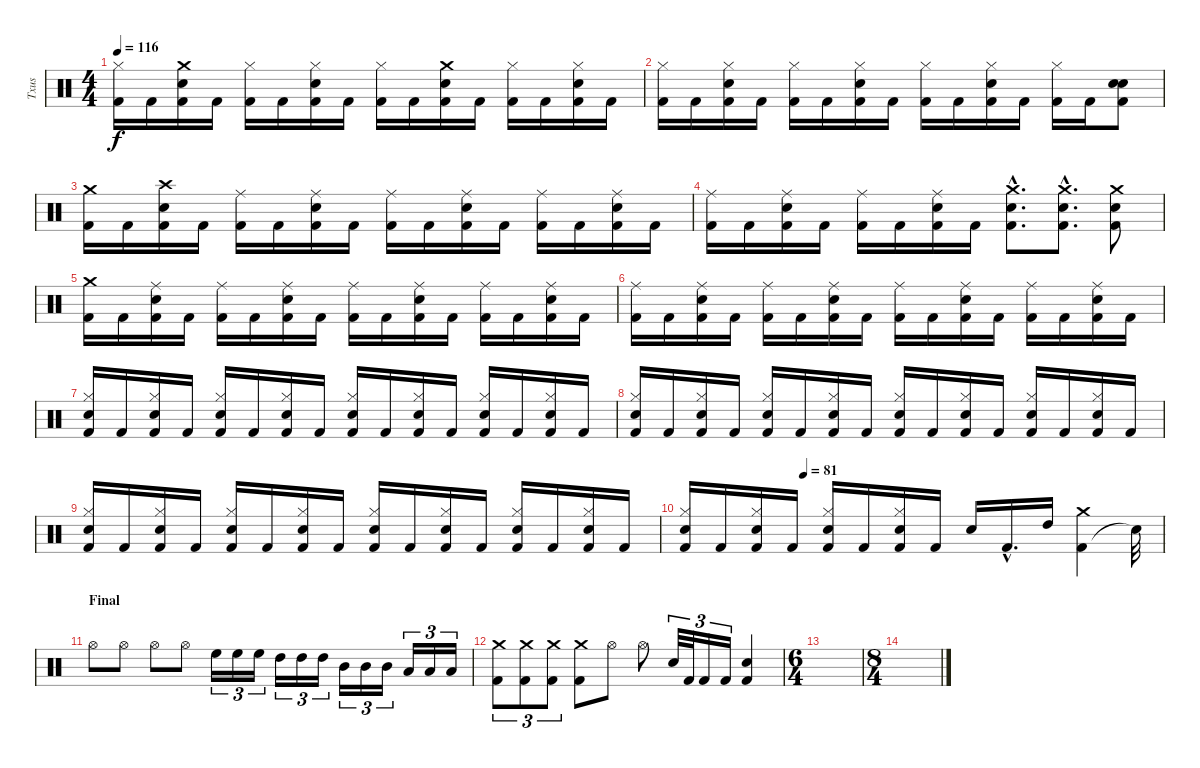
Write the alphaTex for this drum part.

\track ("Txus" "Txus") {instrument percussion}
\staff {score}
\articulation defaults
\ts (4 4)
\tempo 116
\clef neutral
\ks c
("Kick (hit) 2" "Hi-Hat (closed)").16{dy f} "Kick (hit) 2".16 ("Kick (hit) 2" "Electric Snare (hit)" "Crash medium (hit)").16 "Kick (hit) 2".16 ("Kick (hit) 2" "Hi-Hat (closed)").16 "Kick (hit) 2".16 ("Kick (hit) 2" "Electric Snare (hit)" "Hi-Hat (closed)").16 "Kick (hit) 2".16 ("Kick (hit) 2" "Hi-Hat (closed)").16 "Kick (hit) 2".16 ("Kick (hit) 2" "Electric Snare (hit)" "Crash medium (hit)").16 "Kick (hit) 2".16 ("Kick (hit) 2" "Hi-Hat (closed)").16 "Kick (hit) 2".16 ("Kick (hit) 2" "Electric Snare (hit)" "Hi-Hat (closed)").16 "Kick (hit) 2".16 |
("Kick (hit) 2" "Hi-Hat (closed)").16 "Kick (hit) 2".16 ("Kick (hit) 2" "Electric Snare (hit)" "Hi-Hat (closed)").16 "Kick (hit) 2".16 ("Kick (hit) 2" "Hi-Hat (closed)").16 "Kick (hit) 2".16 ("Kick (hit) 2" "Electric Snare (hit)" "Hi-Hat (closed)").16 "Kick (hit) 2".16 ("Kick (hit) 2" "Hi-Hat (closed)").16 "Kick (hit) 2".16 ("Kick (hit) 2" "Electric Snare (hit)" "Hi-Hat (closed)").16 "Kick (hit) 2".16 ("Kick (hit) 2" "Hi-Hat (closed)").16 "Kick (hit) 2".16 ("Kick (hit) 2" "Electric Snare (hit)" "Snare (hit) 2").8 |
("Kick (hit) 2" "Crash medium (hit)").16 "Kick (hit) 2".16 ("Kick (hit) 2" "Electric Snare (hit)" "Crash high (hit)").16 "Kick (hit) 2".16 ("Kick (hit) 2" "Ride (middle)").16 "Kick (hit) 2".16 ("Kick (hit) 2" "Electric Snare (hit)" "Ride (middle)").16 "Kick (hit) 2".16 ("Kick (hit) 2" "Ride (middle)").16 "Kick (hit) 2".16 ("Kick (hit) 2" "Electric Snare (hit)" "Ride (middle)").16 "Kick (hit) 2".16 ("Kick (hit) 2" "Ride (middle)").16 "Kick (hit) 2".16 ("Kick (hit) 2" "Electric Snare (hit)" "Ride (middle)").16 "Kick (hit) 2".16 |
("Kick (hit) 2" "Ride (middle)").16 "Kick (hit) 2".16 ("Kick (hit) 2" "Electric Snare (hit)" "Ride (middle)").16 "Kick (hit) 2".16 ("Kick (hit) 2" "Ride (middle)").16 "Kick (hit) 2".16 ("Kick (hit) 2" "Electric Snare (hit)" "Ride (middle)").16 "Kick (hit) 2".16 ("Kick (hit) 2"{hac} "Electric Snare (hit)"{hac} "Crash medium (hit)"{hac}).8{d} ("Kick (hit) 2"{hac} "Electric Snare (hit)"{hac} "Crash medium (hit)"{hac}).8{d} ("Kick (hit) 2" "Electric Snare (hit)" "Crash medium (hit)").8 |
("Kick (hit) 2" "Crash medium (hit)").16 "Kick (hit) 2".16 ("Kick (hit) 2" "Electric Snare (hit)" "Ride (middle)").16 "Kick (hit) 2".16 ("Kick (hit) 2" "Ride (middle)").16 "Kick (hit) 2".16 ("Kick (hit) 2" "Electric Snare (hit)" "Ride (middle)").16 "Kick (hit) 2".16 ("Kick (hit) 2" "Ride (middle)").16 "Kick (hit) 2".16 ("Kick (hit) 2" "Electric Snare (hit)" "Ride (middle)").16 "Kick (hit) 2".16 ("Kick (hit) 2" "Ride (middle)").16 "Kick (hit) 2".16 ("Kick (hit) 2" "Electric Snare (hit)" "Ride (middle)").16 "Kick (hit) 2".16 |
("Kick (hit) 2" "Ride (middle)").16 "Kick (hit) 2".16 ("Kick (hit) 2" "Electric Snare (hit)" "Ride (middle)").16 "Kick (hit) 2".16 ("Kick (hit) 2" "Ride (middle)").16 "Kick (hit) 2".16 ("Kick (hit) 2" "Electric Snare (hit)" "Ride (middle)").16 "Kick (hit) 2".16 ("Kick (hit) 2" "Ride (middle)").16 "Kick (hit) 2".16 ("Kick (hit) 2" "Electric Snare (hit)" "Ride (middle)").16 "Kick (hit) 2".16 ("Kick (hit) 2" "Ride (middle)").16 "Kick (hit) 2".16 ("Kick (hit) 2" "Electric Snare (hit)" "Ride (middle)").16 "Kick (hit) 2".16 |
("Kick (hit) 2" "Electric Snare (hit)" "Hi-Hat (closed)").16 "Kick (hit) 2".16 ("Kick (hit) 2" "Electric Snare (hit)" "Hi-Hat (closed)").16 "Kick (hit) 2".16 ("Kick (hit) 2" "Electric Snare (hit)" "Hi-Hat (closed)").16 "Kick (hit) 2".16 ("Kick (hit) 2" "Electric Snare (hit)" "Hi-Hat (closed)").16 "Kick (hit) 2".16 ("Kick (hit) 2" "Electric Snare (hit)" "Hi-Hat (closed)").16 "Kick (hit) 2".16 ("Kick (hit) 2" "Electric Snare (hit)" "Hi-Hat (closed)").16 "Kick (hit) 2".16 ("Kick (hit) 2" "Electric Snare (hit)" "Hi-Hat (closed)").16 "Kick (hit) 2".16 ("Kick (hit) 2" "Electric Snare (hit)" "Hi-Hat (closed)").16 "Kick (hit) 2".16 |
("Kick (hit) 2" "Electric Snare (hit)" "Hi-Hat (closed)").16 "Kick (hit) 2".16 ("Kick (hit) 2" "Electric Snare (hit)" "Hi-Hat (closed)").16 "Kick (hit) 2".16 ("Kick (hit) 2" "Electric Snare (hit)" "Hi-Hat (closed)").16 "Kick (hit) 2".16 ("Kick (hit) 2" "Electric Snare (hit)" "Hi-Hat (closed)").16 "Kick (hit) 2".16 ("Kick (hit) 2" "Electric Snare (hit)" "Hi-Hat (closed)").16 "Kick (hit) 2".16 ("Kick (hit) 2" "Electric Snare (hit)" "Hi-Hat (closed)").16 "Kick (hit) 2".16 ("Kick (hit) 2" "Electric Snare (hit)" "Hi-Hat (closed)").16 "Kick (hit) 2".16 ("Kick (hit) 2" "Electric Snare (hit)" "Hi-Hat (closed)").16 "Kick (hit) 2".16 |
("Kick (hit) 2" "Electric Snare (hit)" "Hi-Hat (closed)").16 "Kick (hit) 2".16 ("Kick (hit) 2" "Electric Snare (hit)" "Hi-Hat (closed)").16 "Kick (hit) 2".16 ("Kick (hit) 2" "Electric Snare (hit)" "Hi-Hat (closed)").16 "Kick (hit) 2".16 ("Kick (hit) 2" "Electric Snare (hit)" "Hi-Hat (closed)").16 "Kick (hit) 2".16 ("Kick (hit) 2" "Electric Snare (hit)" "Hi-Hat (closed)").16 "Kick (hit) 2".16 ("Kick (hit) 2" "Electric Snare (hit)" "Hi-Hat (closed)").16 "Kick (hit) 2".16 ("Kick (hit) 2" "Electric Snare (hit)" "Hi-Hat (closed)").16 "Kick (hit) 2".16 ("Kick (hit) 2" "Electric Snare (hit)" "Hi-Hat (closed)").16 "Kick (hit) 2".16 |
\tempo (81 0.25)
("Kick (hit) 2" "Electric Snare (hit)" "Hi-Hat (closed)").16 "Kick (hit) 2".16 ("Kick (hit) 2" "Electric Snare (hit)" "Hi-Hat (closed)").16 "Kick (hit) 2".16 ("Kick (hit) 2" "Electric Snare (hit)" "Hi-Hat (closed)").16 "Kick (hit) 2".16 ("Kick (hit) 2" "Electric Snare (hit)" "Hi-Hat (closed)").16 "Kick (hit) 2".16 "Electric Snare (hit)".16 "Kick (hit) 2"{hac}.16{d} "High Tom (hit)".16 ("Kick (hit) 2" "Crash medium (hit)").4 "Snare (hit)"{t}.32 |
\section ("" "Final")
"Hi-Hat (open)".8 "Hi-Hat (open)".8 "Hi-Hat (open)".8 "Hi-Hat (open)".8 "High Floor Tom (hit)".16{tu (3 2)} "High Floor Tom (hit)".16{tu (3 2)} "High Floor Tom (hit)".16{tu (3 2)} "High Tom (hit)".16{tu (3 2)} "High Tom (hit)".16{tu (3 2)} "High Tom (hit)".16{tu (3 2)} "Mid Tom (hit)".16{tu (3 2)} "Mid Tom (hit)".16{tu (3 2)} "Mid Tom (hit)".16{tu (3 2)} "Low Tom (hit)".16{tu (3 2)} "Low Tom (hit)".16{tu (3 2)} "Low Tom (hit)".16{tu (3 2)} |
("Kick (hit) 2" "Crash medium (hit)").8{tu (3 2)} ("Kick (hit) 2" "Crash medium (hit)").8{tu (3 2)} ("Kick (hit) 2" "Crash medium (hit)").8{tu (3 2)} ("Kick (hit) 2" "Crash medium (hit)").8 "Hi-Hat (open)".8 "Hi-Hat (open)".8 "Electric Snare (hit)".32{tu (3 2)} "Kick (hit) 2".32{tu (3 2)} "Kick (hit) 2".16{tu (3 2)} "Kick (hit) 2".16{tu (3 2)} ("Kick (hit) 2" "Electric Snare (hit)").4 |
\ts (6 4)
|
\ts (8 4)
